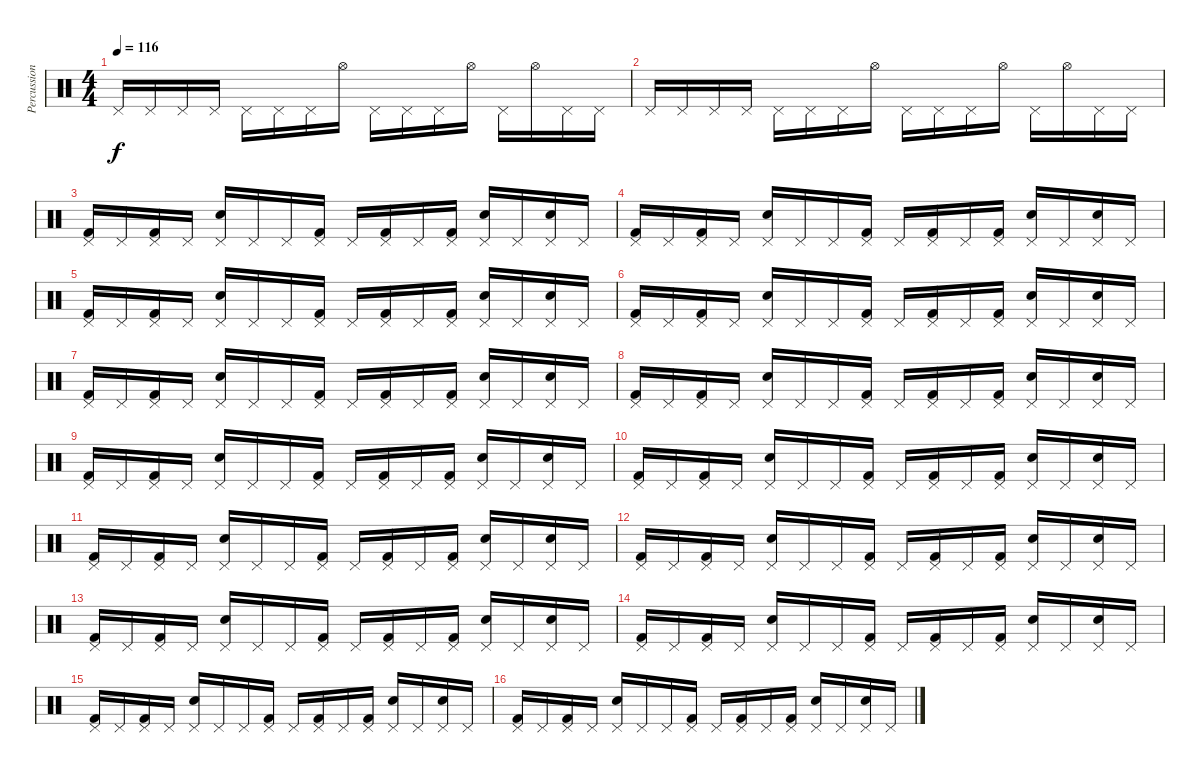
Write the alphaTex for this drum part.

\track ("Percussions" "Percussion") {instrument percussion}
\staff {score}
\articulation defaults
\ts (4 4)
\tempo 116
\clef neutral
\ks c "Pedal Hi-Hat (hit)".16{dy f} "Pedal Hi-Hat (hit)".16 "Pedal Hi-Hat (hit)".16 "Pedal Hi-Hat (hit)".16 "Pedal Hi-Hat (hit)".16 "Pedal Hi-Hat (hit)".16 "Pedal Hi-Hat (hit)".16 "Hi-Hat (open)".16 "Pedal Hi-Hat (hit)".16 "Pedal Hi-Hat (hit)".16 "Pedal Hi-Hat (hit)".16 "Hi-Hat (open)".16 "Pedal Hi-Hat (hit)".16 "Hi-Hat (open)".16 "Pedal Hi-Hat (hit)".16 "Pedal Hi-Hat (hit)".16
|
"Pedal Hi-Hat (hit)".16 "Pedal Hi-Hat (hit)".16 "Pedal Hi-Hat (hit)".16 "Pedal Hi-Hat (hit)".16 "Pedal Hi-Hat (hit)".16 "Pedal Hi-Hat (hit)".16 "Pedal Hi-Hat (hit)".16 "Hi-Hat (open)".16 "Pedal Hi-Hat (hit)".16 "Pedal Hi-Hat (hit)".16 "Pedal Hi-Hat (hit)".16 "Hi-Hat (open)".16 "Pedal Hi-Hat (hit)".16 "Hi-Hat (open)".16 "Pedal Hi-Hat (hit)".16 "Pedal Hi-Hat (hit)".16 |
("Pedal Hi-Hat (hit)" "Kick (hit) 2").16 "Pedal Hi-Hat (hit)".16 ("Pedal Hi-Hat (hit)" "Kick (hit) 2").16 "Pedal Hi-Hat (hit)".16 ("Pedal Hi-Hat (hit)" "Snare (hit) 2").16 "Pedal Hi-Hat (hit)".16 "Pedal Hi-Hat (hit)".16 ("Pedal Hi-Hat (hit)" "Kick (hit) 2").16 "Pedal Hi-Hat (hit)".16 ("Pedal Hi-Hat (hit)" "Kick (hit) 2").16 "Pedal Hi-Hat (hit)".16 ("Pedal Hi-Hat (hit)" "Kick (hit) 2").16 ("Pedal Hi-Hat (hit)" "Snare (hit) 2").16 "Pedal Hi-Hat (hit)".16 ("Pedal Hi-Hat (hit)" "Snare (hit) 2").16 "Pedal Hi-Hat (hit)".16 |
("Pedal Hi-Hat (hit)" "Kick (hit) 2").16 "Pedal Hi-Hat (hit)".16 ("Pedal Hi-Hat (hit)" "Kick (hit) 2").16 "Pedal Hi-Hat (hit)".16 ("Pedal Hi-Hat (hit)" "Snare (hit) 2").16 "Pedal Hi-Hat (hit)".16 "Pedal Hi-Hat (hit)".16 ("Pedal Hi-Hat (hit)" "Kick (hit) 2").16 "Pedal Hi-Hat (hit)".16 ("Pedal Hi-Hat (hit)" "Kick (hit) 2").16 "Pedal Hi-Hat (hit)".16 ("Pedal Hi-Hat (hit)" "Kick (hit) 2").16 ("Pedal Hi-Hat (hit)" "Snare (hit) 2").16 "Pedal Hi-Hat (hit)".16 ("Pedal Hi-Hat (hit)" "Snare (hit) 2").16 "Pedal Hi-Hat (hit)".16 |
("Pedal Hi-Hat (hit)" "Kick (hit) 2").16 "Pedal Hi-Hat (hit)".16 ("Pedal Hi-Hat (hit)" "Kick (hit) 2").16 "Pedal Hi-Hat (hit)".16 ("Pedal Hi-Hat (hit)" "Snare (hit) 2").16 "Pedal Hi-Hat (hit)".16 "Pedal Hi-Hat (hit)".16 ("Pedal Hi-Hat (hit)" "Kick (hit) 2").16 "Pedal Hi-Hat (hit)".16 ("Pedal Hi-Hat (hit)" "Kick (hit) 2").16 "Pedal Hi-Hat (hit)".16 ("Pedal Hi-Hat (hit)" "Kick (hit) 2").16 ("Pedal Hi-Hat (hit)" "Snare (hit) 2").16 "Pedal Hi-Hat (hit)".16 ("Pedal Hi-Hat (hit)" "Snare (hit) 2").16 "Pedal Hi-Hat (hit)".16 |
("Pedal Hi-Hat (hit)" "Kick (hit) 2").16 "Pedal Hi-Hat (hit)".16 ("Pedal Hi-Hat (hit)" "Kick (hit) 2").16 "Pedal Hi-Hat (hit)".16 ("Pedal Hi-Hat (hit)" "Snare (hit) 2").16 "Pedal Hi-Hat (hit)".16 "Pedal Hi-Hat (hit)".16 ("Pedal Hi-Hat (hit)" "Kick (hit) 2").16 "Pedal Hi-Hat (hit)".16 ("Pedal Hi-Hat (hit)" "Kick (hit) 2").16 "Pedal Hi-Hat (hit)".16 ("Pedal Hi-Hat (hit)" "Kick (hit) 2").16 ("Pedal Hi-Hat (hit)" "Snare (hit) 2").16 "Pedal Hi-Hat (hit)".16 ("Pedal Hi-Hat (hit)" "Snare (hit) 2").16 "Pedal Hi-Hat (hit)".16 |
("Pedal Hi-Hat (hit)" "Kick (hit) 2").16 "Pedal Hi-Hat (hit)".16 ("Pedal Hi-Hat (hit)" "Kick (hit) 2").16 "Pedal Hi-Hat (hit)".16 ("Pedal Hi-Hat (hit)" "Snare (hit) 2").16 "Pedal Hi-Hat (hit)".16 "Pedal Hi-Hat (hit)".16 ("Pedal Hi-Hat (hit)" "Kick (hit) 2").16 "Pedal Hi-Hat (hit)".16 ("Pedal Hi-Hat (hit)" "Kick (hit) 2").16 "Pedal Hi-Hat (hit)".16 ("Pedal Hi-Hat (hit)" "Kick (hit) 2").16 ("Pedal Hi-Hat (hit)" "Snare (hit) 2").16 "Pedal Hi-Hat (hit)".16 ("Pedal Hi-Hat (hit)" "Snare (hit) 2").16 "Pedal Hi-Hat (hit)".16 |
("Pedal Hi-Hat (hit)" "Kick (hit) 2").16 "Pedal Hi-Hat (hit)".16 ("Pedal Hi-Hat (hit)" "Kick (hit) 2").16 "Pedal Hi-Hat (hit)".16 ("Pedal Hi-Hat (hit)" "Snare (hit) 2").16 "Pedal Hi-Hat (hit)".16 "Pedal Hi-Hat (hit)".16 ("Pedal Hi-Hat (hit)" "Kick (hit) 2").16 "Pedal Hi-Hat (hit)".16 ("Pedal Hi-Hat (hit)" "Kick (hit) 2").16 "Pedal Hi-Hat (hit)".16 ("Pedal Hi-Hat (hit)" "Kick (hit) 2").16 ("Pedal Hi-Hat (hit)" "Snare (hit) 2").16 "Pedal Hi-Hat (hit)".16 ("Pedal Hi-Hat (hit)" "Snare (hit) 2").16 "Pedal Hi-Hat (hit)".16 |
("Pedal Hi-Hat (hit)" "Kick (hit) 2").16 "Pedal Hi-Hat (hit)".16 ("Pedal Hi-Hat (hit)" "Kick (hit) 2").16 "Pedal Hi-Hat (hit)".16 ("Pedal Hi-Hat (hit)" "Snare (hit) 2").16 "Pedal Hi-Hat (hit)".16 "Pedal Hi-Hat (hit)".16 ("Pedal Hi-Hat (hit)" "Kick (hit) 2").16 "Pedal Hi-Hat (hit)".16 ("Pedal Hi-Hat (hit)" "Kick (hit) 2").16 "Pedal Hi-Hat (hit)".16 ("Pedal Hi-Hat (hit)" "Kick (hit) 2").16 ("Pedal Hi-Hat (hit)" "Snare (hit) 2").16 "Pedal Hi-Hat (hit)".16 ("Pedal Hi-Hat (hit)" "Snare (hit) 2").16 "Pedal Hi-Hat (hit)".16 |
("Pedal Hi-Hat (hit)" "Kick (hit) 2").16 "Pedal Hi-Hat (hit)".16 ("Pedal Hi-Hat (hit)" "Kick (hit) 2").16 "Pedal Hi-Hat (hit)".16 ("Pedal Hi-Hat (hit)" "Snare (hit) 2").16 "Pedal Hi-Hat (hit)".16 "Pedal Hi-Hat (hit)".16 ("Pedal Hi-Hat (hit)" "Kick (hit) 2").16 "Pedal Hi-Hat (hit)".16 ("Pedal Hi-Hat (hit)" "Kick (hit) 2").16 "Pedal Hi-Hat (hit)".16 ("Pedal Hi-Hat (hit)" "Kick (hit) 2").16 ("Pedal Hi-Hat (hit)" "Snare (hit) 2").16 "Pedal Hi-Hat (hit)".16 ("Pedal Hi-Hat (hit)" "Snare (hit) 2").16 "Pedal Hi-Hat (hit)".16 |
("Pedal Hi-Hat (hit)" "Kick (hit) 2").16 "Pedal Hi-Hat (hit)".16 ("Pedal Hi-Hat (hit)" "Kick (hit) 2").16 "Pedal Hi-Hat (hit)".16 ("Pedal Hi-Hat (hit)" "Snare (hit) 2").16 "Pedal Hi-Hat (hit)".16 "Pedal Hi-Hat (hit)".16 ("Pedal Hi-Hat (hit)" "Kick (hit) 2").16 "Pedal Hi-Hat (hit)".16 ("Pedal Hi-Hat (hit)" "Kick (hit) 2").16 "Pedal Hi-Hat (hit)".16 ("Pedal Hi-Hat (hit)" "Kick (hit) 2").16 ("Pedal Hi-Hat (hit)" "Snare (hit) 2").16 "Pedal Hi-Hat (hit)".16 ("Pedal Hi-Hat (hit)" "Snare (hit) 2").16 "Pedal Hi-Hat (hit)".16 |
("Pedal Hi-Hat (hit)" "Kick (hit) 2").16 "Pedal Hi-Hat (hit)".16 ("Pedal Hi-Hat (hit)" "Kick (hit) 2").16 "Pedal Hi-Hat (hit)".16 ("Pedal Hi-Hat (hit)" "Snare (hit) 2").16 "Pedal Hi-Hat (hit)".16 "Pedal Hi-Hat (hit)".16 ("Pedal Hi-Hat (hit)" "Kick (hit) 2").16 "Pedal Hi-Hat (hit)".16 ("Pedal Hi-Hat (hit)" "Kick (hit) 2").16 "Pedal Hi-Hat (hit)".16 ("Pedal Hi-Hat (hit)" "Kick (hit) 2").16 ("Pedal Hi-Hat (hit)" "Snare (hit) 2").16 "Pedal Hi-Hat (hit)".16 ("Pedal Hi-Hat (hit)" "Snare (hit) 2").16 "Pedal Hi-Hat (hit)".16 |
("Pedal Hi-Hat (hit)" "Kick (hit) 2").16 "Pedal Hi-Hat (hit)".16 ("Pedal Hi-Hat (hit)" "Kick (hit) 2").16 "Pedal Hi-Hat (hit)".16 ("Pedal Hi-Hat (hit)" "Snare (hit) 2").16 "Pedal Hi-Hat (hit)".16 "Pedal Hi-Hat (hit)".16 ("Pedal Hi-Hat (hit)" "Kick (hit) 2").16 "Pedal Hi-Hat (hit)".16 ("Pedal Hi-Hat (hit)" "Kick (hit) 2").16 "Pedal Hi-Hat (hit)".16 ("Pedal Hi-Hat (hit)" "Kick (hit) 2").16 ("Pedal Hi-Hat (hit)" "Snare (hit) 2").16 "Pedal Hi-Hat (hit)".16 ("Pedal Hi-Hat (hit)" "Snare (hit) 2").16 "Pedal Hi-Hat (hit)".16 |
("Pedal Hi-Hat (hit)" "Kick (hit) 2").16 "Pedal Hi-Hat (hit)".16 ("Pedal Hi-Hat (hit)" "Kick (hit) 2").16 "Pedal Hi-Hat (hit)".16 ("Pedal Hi-Hat (hit)" "Snare (hit) 2").16 "Pedal Hi-Hat (hit)".16 "Pedal Hi-Hat (hit)".16 ("Pedal Hi-Hat (hit)" "Kick (hit) 2").16 "Pedal Hi-Hat (hit)".16 ("Pedal Hi-Hat (hit)" "Kick (hit) 2").16 "Pedal Hi-Hat (hit)".16 ("Pedal Hi-Hat (hit)" "Kick (hit) 2").16 ("Pedal Hi-Hat (hit)" "Snare (hit) 2").16 "Pedal Hi-Hat (hit)".16 ("Pedal Hi-Hat (hit)" "Snare (hit) 2").16 "Pedal Hi-Hat (hit)".16 |
("Pedal Hi-Hat (hit)" "Kick (hit) 2").16 "Pedal Hi-Hat (hit)".16 ("Pedal Hi-Hat (hit)" "Kick (hit) 2").16 "Pedal Hi-Hat (hit)".16 ("Pedal Hi-Hat (hit)" "Snare (hit) 2").16 "Pedal Hi-Hat (hit)".16 "Pedal Hi-Hat (hit)".16 ("Pedal Hi-Hat (hit)" "Kick (hit) 2").16 "Pedal Hi-Hat (hit)".16 ("Pedal Hi-Hat (hit)" "Kick (hit) 2").16 "Pedal Hi-Hat (hit)".16 ("Pedal Hi-Hat (hit)" "Kick (hit) 2").16 ("Pedal Hi-Hat (hit)" "Snare (hit) 2").16 "Pedal Hi-Hat (hit)".16 ("Pedal Hi-Hat (hit)" "Snare (hit) 2").16 "Pedal Hi-Hat (hit)".16 |
("Pedal Hi-Hat (hit)" "Kick (hit) 2").16 "Pedal Hi-Hat (hit)".16 ("Pedal Hi-Hat (hit)" "Kick (hit) 2").16 "Pedal Hi-Hat (hit)".16 ("Pedal Hi-Hat (hit)" "Snare (hit) 2").16 "Pedal Hi-Hat (hit)".16 "Pedal Hi-Hat (hit)".16 ("Pedal Hi-Hat (hit)" "Kick (hit) 2").16 "Pedal Hi-Hat (hit)".16 ("Pedal Hi-Hat (hit)" "Kick (hit) 2").16 "Pedal Hi-Hat (hit)".16 ("Pedal Hi-Hat (hit)" "Kick (hit) 2").16 ("Pedal Hi-Hat (hit)" "Snare (hit) 2").16 "Pedal Hi-Hat (hit)".16 ("Pedal Hi-Hat (hit)" "Snare (hit) 2").16 "Pedal Hi-Hat (hit)".16
